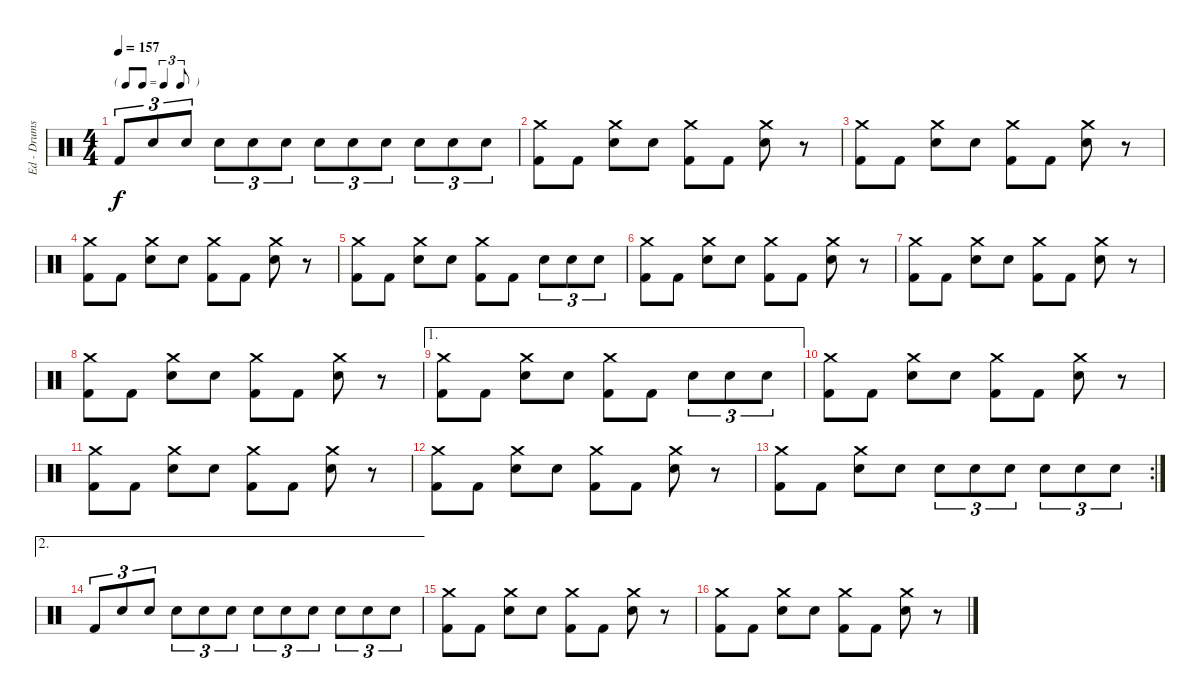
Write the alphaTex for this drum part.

\track ("Ed - Drums" "Ed - Drums") {instrument percussion}
\staff {score}
\articulation defaults
\ts (4 4)
\tf triplet8th
\tempo 157
\clef neutral
\ks c "Kick (hit) 2".8{tu (3 2) dy f} "Electric Snare (hit)".8{tu (3 2)} "Electric Snare (hit)".8{tu (3 2)} "Electric Snare (hit)".8{tu (3 2)} "Electric Snare (hit)".8{tu (3 2)} "Electric Snare (hit)".8{tu (3 2)} "Electric Snare (hit)".8{tu (3 2)} "Electric Snare (hit)".8{tu (3 2)} "Electric Snare (hit)".8{tu (3 2)} "Electric Snare (hit)".8{tu (3 2)} "Electric Snare (hit)".8{tu (3 2)} "Electric Snare (hit)".8{tu (3 2)}
|
("Crash medium (hit)" "Kick (hit) 2").8 "Kick (hit) 2".8 ("Crash medium (hit)" "Electric Snare (hit)").8 "Electric Snare (hit)".8 ("Crash medium (hit)" "Kick (hit) 2").8 "Kick (hit) 2".8 ("Crash medium (hit)" "Electric Snare (hit)").8 r.8 |
("Crash medium (hit)" "Kick (hit) 2").8 "Kick (hit) 2".8 ("Crash medium (hit)" "Electric Snare (hit)").8 "Electric Snare (hit)".8 ("Crash medium (hit)" "Kick (hit) 2").8 "Kick (hit) 2".8 ("Crash medium (hit)" "Electric Snare (hit)").8 r.8 |
("Crash medium (hit)" "Kick (hit) 2").8 "Kick (hit) 2".8 ("Crash medium (hit)" "Electric Snare (hit)").8 "Electric Snare (hit)".8 ("Crash medium (hit)" "Kick (hit) 2").8 "Kick (hit) 2".8 ("Crash medium (hit)" "Electric Snare (hit)").8 r.8 |
("Crash medium (hit)" "Kick (hit) 2").8 "Kick (hit) 2".8 ("Crash medium (hit)" "Electric Snare (hit)").8 "Electric Snare (hit)".8 ("Crash medium (hit)" "Kick (hit) 2").8 "Kick (hit) 2".8 "Electric Snare (hit)".8{tu (3 2)} "Electric Snare (hit)".8{tu (3 2)} "Electric Snare (hit)".8{tu (3 2)} |
("Crash medium (hit)" "Kick (hit) 2").8 "Kick (hit) 2".8 ("Crash medium (hit)" "Electric Snare (hit)").8 "Electric Snare (hit)".8 ("Crash medium (hit)" "Kick (hit) 2").8 "Kick (hit) 2".8 ("Crash medium (hit)" "Electric Snare (hit)").8 r.8 |
("Crash medium (hit)" "Kick (hit) 2").8 "Kick (hit) 2".8 ("Crash medium (hit)" "Electric Snare (hit)").8 "Electric Snare (hit)".8 ("Crash medium (hit)" "Kick (hit) 2").8 "Kick (hit) 2".8 ("Crash medium (hit)" "Electric Snare (hit)").8 r.8 |
("Crash medium (hit)" "Kick (hit) 2").8 "Kick (hit) 2".8 ("Crash medium (hit)" "Electric Snare (hit)").8 "Electric Snare (hit)".8 ("Crash medium (hit)" "Kick (hit) 2").8 "Kick (hit) 2".8 ("Crash medium (hit)" "Electric Snare (hit)").8 r.8 |
\ae 1
("Crash medium (hit)" "Kick (hit) 2").8 "Kick (hit) 2".8 ("Crash medium (hit)" "Electric Snare (hit)").8 "Electric Snare (hit)".8 ("Crash medium (hit)" "Kick (hit) 2").8 "Kick (hit) 2".8 "Electric Snare (hit)".8{tu (3 2)} "Electric Snare (hit)".8{tu (3 2)} "Electric Snare (hit)".8{tu (3 2)} |
("Crash medium (hit)" "Kick (hit) 2").8 "Kick (hit) 2".8 ("Crash medium (hit)" "Electric Snare (hit)").8 "Electric Snare (hit)".8 ("Crash medium (hit)" "Kick (hit) 2").8 "Kick (hit) 2".8 ("Crash medium (hit)" "Electric Snare (hit)").8 r.8 |
("Crash medium (hit)" "Kick (hit) 2").8 "Kick (hit) 2".8 ("Crash medium (hit)" "Electric Snare (hit)").8 "Electric Snare (hit)".8 ("Crash medium (hit)" "Kick (hit) 2").8 "Kick (hit) 2".8 ("Crash medium (hit)" "Electric Snare (hit)").8 r.8 |
("Crash medium (hit)" "Kick (hit) 2").8 "Kick (hit) 2".8 ("Crash medium (hit)" "Electric Snare (hit)").8 "Electric Snare (hit)".8 ("Crash medium (hit)" "Kick (hit) 2").8 "Kick (hit) 2".8 ("Crash medium (hit)" "Electric Snare (hit)").8 r.8 |
\rc 2
("Crash medium (hit)" "Kick (hit) 2").8 "Kick (hit) 2".8 ("Crash medium (hit)" "Electric Snare (hit)").8 "Electric Snare (hit)".8 "Electric Snare (hit)".8{tu (3 2)} "Electric Snare (hit)".8{tu (3 2)} "Electric Snare (hit)".8{tu (3 2)} "Electric Snare (hit)".8{tu (3 2)} "Electric Snare (hit)".8{tu (3 2)} "Electric Snare (hit)".8{tu (3 2)} |
\ae 2 "Kick (hit) 2".8{tu (3 2)} "Electric Snare (hit)".8{tu (3 2)} "Electric Snare (hit)".8{tu (3 2)} "Electric Snare (hit)".8{tu (3 2)} "Electric Snare (hit)".8{tu (3 2)} "Electric Snare (hit)".8{tu (3 2)} "Electric Snare (hit)".8{tu (3 2)} "Electric Snare (hit)".8{tu (3 2)} "Electric Snare (hit)".8{tu (3 2)} "Electric Snare (hit)".8{tu (3 2)} "Electric Snare (hit)".8{tu (3 2)} "Electric Snare (hit)".8{tu (3 2)}
|
("Crash medium (hit)" "Kick (hit) 2").8 "Kick (hit) 2".8 ("Crash medium (hit)" "Electric Snare (hit)").8 "Electric Snare (hit)".8 ("Crash medium (hit)" "Kick (hit) 2").8 "Kick (hit) 2".8 ("Crash medium (hit)" "Electric Snare (hit)").8 r.8 |
("Crash medium (hit)" "Kick (hit) 2").8 "Kick (hit) 2".8 ("Crash medium (hit)" "Electric Snare (hit)").8 "Electric Snare (hit)".8 ("Crash medium (hit)" "Kick (hit) 2").8 "Kick (hit) 2".8 ("Crash medium (hit)" "Electric Snare (hit)").8 r.8
